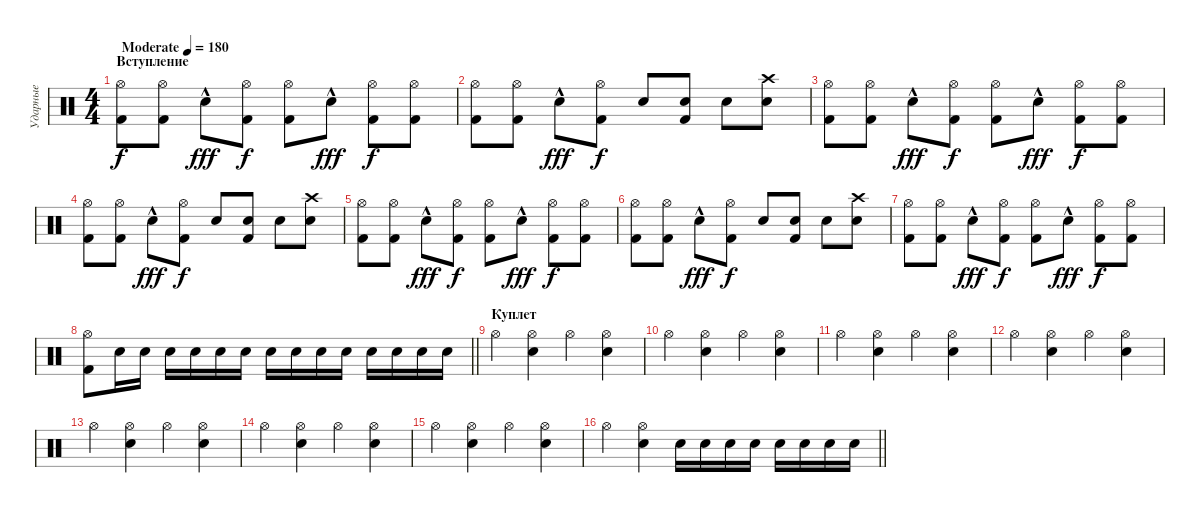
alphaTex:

\track ("Ударные" "Ударные") {instrument percussion}
\staff {score}
\articulation defaults
\ts (4 4)
\section ("" "Вступление")
\tempo (180 "Moderate")
\clef neutral
\ks c
("Hi-Hat (open)" "Kick (hit) 2").8{dy f} ("Hi-Hat (open)" "Kick (hit) 2").8 "Electric Snare (hit)"{hac}.8{dy fff} ("Hi-Hat (open)" "Kick (hit) 2").8{dy f} ("Hi-Hat (open)" "Kick (hit) 2").8 "Electric Snare (hit)"{hac}.8{dy fff} ("Hi-Hat (open)" "Kick (hit) 2").8{dy f} ("Hi-Hat (open)" "Kick (hit) 2").8 |
("Hi-Hat (open)" "Kick (hit) 2").8 ("Hi-Hat (open)" "Kick (hit) 2").8 "Electric Snare (hit)"{hac}.8{dy fff} ("Hi-Hat (open)" "Kick (hit) 2").8{dy f} "Electric Snare (hit)".8 ("Kick (hit) 2" "Electric Snare (hit)").8 "Electric Snare (hit)".8 ("Crash high (hit)" "Electric Snare (hit)").8 |
("Hi-Hat (open)" "Kick (hit) 2").8 ("Hi-Hat (open)" "Kick (hit) 2").8 "Electric Snare (hit)"{hac}.8{dy fff} ("Hi-Hat (open)" "Kick (hit) 2").8{dy f} ("Hi-Hat (open)" "Kick (hit) 2").8 "Electric Snare (hit)"{hac}.8{dy fff} ("Hi-Hat (open)" "Kick (hit) 2").8{dy f} ("Hi-Hat (open)" "Kick (hit) 2").8 |
("Hi-Hat (open)" "Kick (hit) 2").8 ("Hi-Hat (open)" "Kick (hit) 2").8 "Electric Snare (hit)"{hac}.8{dy fff} ("Hi-Hat (open)" "Kick (hit) 2").8{dy f} "Electric Snare (hit)".8 ("Kick (hit) 2" "Electric Snare (hit)").8 "Electric Snare (hit)".8 ("Crash high (hit)" "Electric Snare (hit)").8 |
("Hi-Hat (open)" "Kick (hit) 2").8 ("Hi-Hat (open)" "Kick (hit) 2").8 "Electric Snare (hit)"{hac}.8{dy fff} ("Hi-Hat (open)" "Kick (hit) 2").8{dy f} ("Hi-Hat (open)" "Kick (hit) 2").8 "Electric Snare (hit)"{hac}.8{dy fff} ("Hi-Hat (open)" "Kick (hit) 2").8{dy f} ("Hi-Hat (open)" "Kick (hit) 2").8 |
("Hi-Hat (open)" "Kick (hit) 2").8 ("Hi-Hat (open)" "Kick (hit) 2").8 "Electric Snare (hit)"{hac}.8{dy fff} ("Hi-Hat (open)" "Kick (hit) 2").8{dy f} "Electric Snare (hit)".8 ("Kick (hit) 2" "Electric Snare (hit)").8 "Electric Snare (hit)".8 ("Crash high (hit)" "Electric Snare (hit)").8 |
("Hi-Hat (open)" "Kick (hit) 2").8 ("Hi-Hat (open)" "Kick (hit) 2").8 "Electric Snare (hit)"{hac}.8{dy fff} ("Hi-Hat (open)" "Kick (hit) 2").8{dy f} ("Hi-Hat (open)" "Kick (hit) 2").8 "Electric Snare (hit)"{hac}.8{dy fff} ("Hi-Hat (open)" "Kick (hit) 2").8{dy f} ("Hi-Hat (open)" "Kick (hit) 2").8 |
\barLineRight lightlight
("Hi-Hat (open)" "Kick (hit) 2").8 "Electric Snare (hit)".16 "Snare (hit) 2".16 "Electric Snare (hit)".16 "Snare (hit) 2".16 "Electric Snare (hit)".16 "Snare (hit) 2".16 "Electric Snare (hit)".16 "Electric Snare (hit)".16 "Snare (hit) 2".16 "Electric Snare (hit)".16 "Snare (hit) 2".16 "Electric Snare (hit)".16 "Snare (hit) 2".16 "Electric Snare (hit)".16 |
\section ("" "Куплет")
"Hi-Hat (open)".4 ("Electric Snare (hit)" "Hi-Hat (open)").4 "Hi-Hat (open)".4 ("Electric Snare (hit)" "Hi-Hat (open)").4 |
"Hi-Hat (open)".4 ("Electric Snare (hit)" "Hi-Hat (open)").4 "Hi-Hat (open)".4 ("Electric Snare (hit)" "Hi-Hat (open)").4 |
"Hi-Hat (open)".4 ("Electric Snare (hit)" "Hi-Hat (open)").4 "Hi-Hat (open)".4 ("Electric Snare (hit)" "Hi-Hat (open)").4 |
"Hi-Hat (open)".4 ("Electric Snare (hit)" "Hi-Hat (open)").4 "Hi-Hat (open)".4 ("Electric Snare (hit)" "Hi-Hat (open)").4 |
"Hi-Hat (open)".4 ("Electric Snare (hit)" "Hi-Hat (open)").4 "Hi-Hat (open)".4 ("Electric Snare (hit)" "Hi-Hat (open)").4 |
"Hi-Hat (open)".4 ("Electric Snare (hit)" "Hi-Hat (open)").4 "Hi-Hat (open)".4 ("Electric Snare (hit)" "Hi-Hat (open)").4 |
"Hi-Hat (open)".4 ("Electric Snare (hit)" "Hi-Hat (open)").4 "Hi-Hat (open)".4 ("Electric Snare (hit)" "Hi-Hat (open)").4 |
\barLineRight lightlight "Hi-Hat (open)".4
("Electric Snare (hit)" "Hi-Hat (open)").4 "Electric Snare (hit)".16 "Electric Snare (hit)".16 "Snare (hit) 2".16 "Electric Snare (hit)".16 "Snare (hit) 2".16 "Electric Snare (hit)".16 "Snare (hit) 2".16 "Electric Snare (hit)".16
